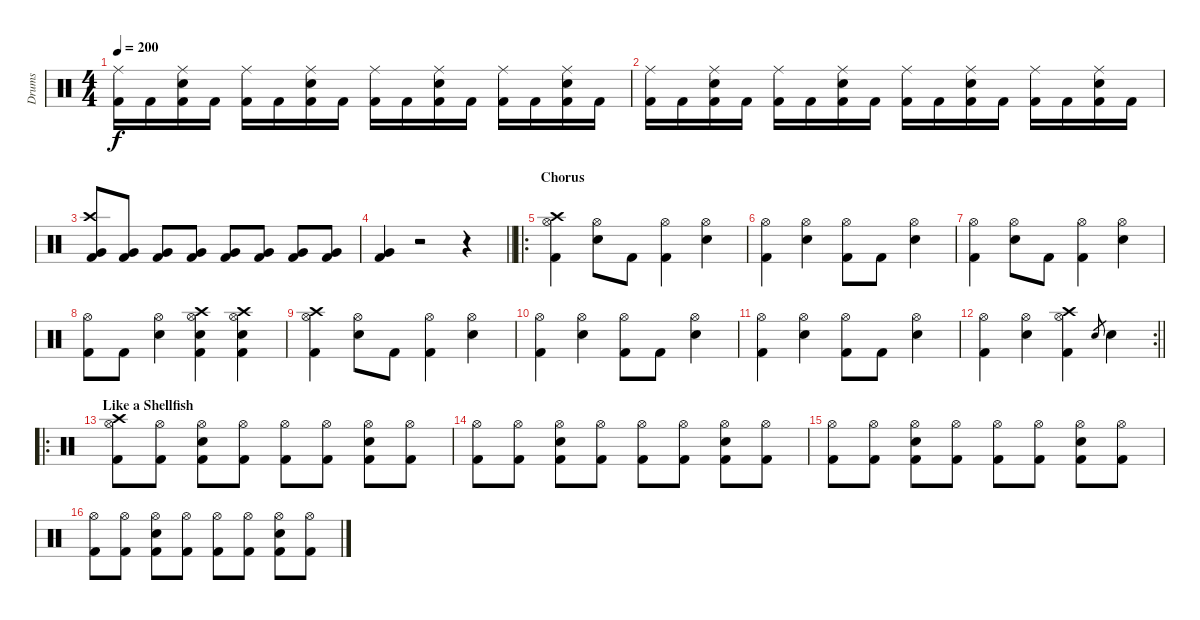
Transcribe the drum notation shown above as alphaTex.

\track ("Drums" "Drums") {instrument percussion}
\staff {score}
\articulation defaults
\ts (4 4)
\tempo 200
\clef neutral
\ks c
("Ride (middle)" "Kick (hit) 2").16{dy f} "Kick (hit) 2".16 ("Ride (middle)" "Snare (hit) 2" "Kick (hit) 2").16 "Kick (hit) 2".16 ("Ride (middle)" "Kick (hit) 2").16 "Kick (hit) 2".16 ("Ride (middle)" "Snare (hit) 2" "Kick (hit) 2").16 "Kick (hit) 2".16 ("Ride (middle)" "Kick (hit) 2").16 "Kick (hit) 2".16 ("Ride (middle)" "Snare (hit) 2" "Kick (hit) 2").16 "Kick (hit) 2".16 ("Ride (middle)" "Kick (hit) 2").16 "Kick (hit) 2".16 ("Ride (middle)" "Snare (hit) 2" "Kick (hit) 2").16 "Kick (hit) 2".16 |
("Ride (middle)" "Kick (hit) 2").16 "Kick (hit) 2".16 ("Ride (middle)" "Snare (hit) 2" "Kick (hit) 2").16 "Kick (hit) 2".16 ("Ride (middle)" "Kick (hit) 2").16 "Kick (hit) 2".16 ("Ride (middle)" "Snare (hit) 2" "Kick (hit) 2").16 "Kick (hit) 2".16 ("Ride (middle)" "Kick (hit) 2").16 "Kick (hit) 2".16 ("Ride (middle)" "Snare (hit) 2" "Kick (hit) 2").16 "Kick (hit) 2".16 ("Ride (middle)" "Kick (hit) 2").16 "Kick (hit) 2".16 ("Ride (middle)" "Snare (hit) 2" "Kick (hit) 2").16 "Kick (hit) 2".16 |
("Crash high (hit)" "Very Low Tom (hit)" "Kick (hit) 2").8 ("Very Low Tom (hit)" "Kick (hit) 2").8 ("Very Low Tom (hit)" "Kick (hit) 2").8 ("Very Low Tom (hit)" "Kick (hit) 2").8 ("Very Low Tom (hit)" "Kick (hit) 2").8 ("Very Low Tom (hit)" "Kick (hit) 2").8 ("Very Low Tom (hit)" "Kick (hit) 2").8 ("Very Low Tom (hit)" "Kick (hit) 2").8 |
\barLineRight lightlight
("Very Low Tom (hit)" "Kick (hit) 2").4 r.2 r.4 |
\ro
\section ("" "Chorus")
("Crash high (hit)" "Hi-Hat (open)" "Kick (hit) 2").4 ("Hi-Hat (open)" "Snare (hit) 2").8 "Kick (hit) 2".8 ("Hi-Hat (open)" "Kick (hit) 2").4 ("Hi-Hat (open)" "Snare (hit) 2").4 |
("Hi-Hat (open)" "Kick (hit) 2").4 ("Hi-Hat (open)" "Snare (hit) 2").4 ("Hi-Hat (open)" "Kick (hit) 2").8 "Kick (hit) 2".8 ("Hi-Hat (open)" "Snare (hit) 2").4 |
("Hi-Hat (open)" "Kick (hit) 2").4 ("Hi-Hat (open)" "Snare (hit) 2").8 "Kick (hit) 2".8 ("Hi-Hat (open)" "Kick (hit) 2").4 ("Hi-Hat (open)" "Snare (hit) 2").4 |
("Hi-Hat (open)" "Kick (hit) 2").8 "Kick (hit) 2".8 ("Hi-Hat (open)" "Snare (hit) 2").4 ("Crash high (hit)" "Hi-Hat (open)" "Snare (hit) 2" "Kick (hit) 2").4 ("Crash high (hit)" "Hi-Hat (open)" "Snare (hit) 2" "Kick (hit) 2").4 |
("Crash high (hit)" "Hi-Hat (open)" "Kick (hit) 2").4 ("Hi-Hat (open)" "Snare (hit) 2").8 "Kick (hit) 2".8 ("Hi-Hat (open)" "Kick (hit) 2").4 ("Hi-Hat (open)" "Snare (hit) 2").4 |
("Hi-Hat (open)" "Kick (hit) 2").4 ("Hi-Hat (open)" "Snare (hit) 2").4 ("Hi-Hat (open)" "Kick (hit) 2").8 "Kick (hit) 2".8 ("Hi-Hat (open)" "Snare (hit) 2").4 |
("Hi-Hat (open)" "Kick (hit) 2").4 ("Hi-Hat (open)" "Snare (hit) 2").4 ("Hi-Hat (open)" "Kick (hit) 2").8 "Kick (hit) 2".8 ("Hi-Hat (open)" "Snare (hit) 2").4 |
\rc 2
\barLineRight lightlight
("Hi-Hat (open)" "Kick (hit) 2").4 ("Hi-Hat (open)" "Snare (hit) 2").4 ("Crash high (hit)" "Hi-Hat (open)" "Kick (hit) 2").4 "Snare (hit) 2".8{gr} "Snare (hit) 2".4 |
\ro
\section ("" "Like a Shellfish")
("Crash high (hit)" "Hi-Hat (open)" "Kick (hit) 2").8 ("Hi-Hat (open)" "Kick (hit) 2").8 ("Hi-Hat (open)" "Snare (hit) 2" "Kick (hit) 2").8 ("Hi-Hat (open)" "Kick (hit) 2").8 ("Hi-Hat (open)" "Kick (hit) 2").8 ("Hi-Hat (open)" "Kick (hit) 2").8 ("Hi-Hat (open)" "Snare (hit) 2" "Kick (hit) 2").8 ("Hi-Hat (open)" "Kick (hit) 2").8 |
("Hi-Hat (open)" "Kick (hit) 2").8 ("Hi-Hat (open)" "Kick (hit) 2").8 ("Hi-Hat (open)" "Snare (hit) 2" "Kick (hit) 2").8 ("Hi-Hat (open)" "Kick (hit) 2").8 ("Hi-Hat (open)" "Kick (hit) 2").8 ("Hi-Hat (open)" "Kick (hit) 2").8 ("Hi-Hat (open)" "Snare (hit) 2" "Kick (hit) 2").8 ("Hi-Hat (open)" "Kick (hit) 2").8 |
("Hi-Hat (open)" "Kick (hit) 2").8 ("Hi-Hat (open)" "Kick (hit) 2").8 ("Hi-Hat (open)" "Snare (hit) 2" "Kick (hit) 2").8 ("Hi-Hat (open)" "Kick (hit) 2").8 ("Hi-Hat (open)" "Kick (hit) 2").8 ("Hi-Hat (open)" "Kick (hit) 2").8 ("Hi-Hat (open)" "Snare (hit) 2" "Kick (hit) 2").8 ("Hi-Hat (open)" "Kick (hit) 2").8 |
("Hi-Hat (open)" "Kick (hit) 2").8 ("Hi-Hat (open)" "Kick (hit) 2").8 ("Hi-Hat (open)" "Snare (hit) 2" "Kick (hit) 2").8 ("Hi-Hat (open)" "Kick (hit) 2").8 ("Hi-Hat (open)" "Kick (hit) 2").8 ("Hi-Hat (open)" "Kick (hit) 2").8 ("Hi-Hat (open)" "Snare (hit) 2" "Kick (hit) 2").8 ("Hi-Hat (open)" "Kick (hit) 2").8
